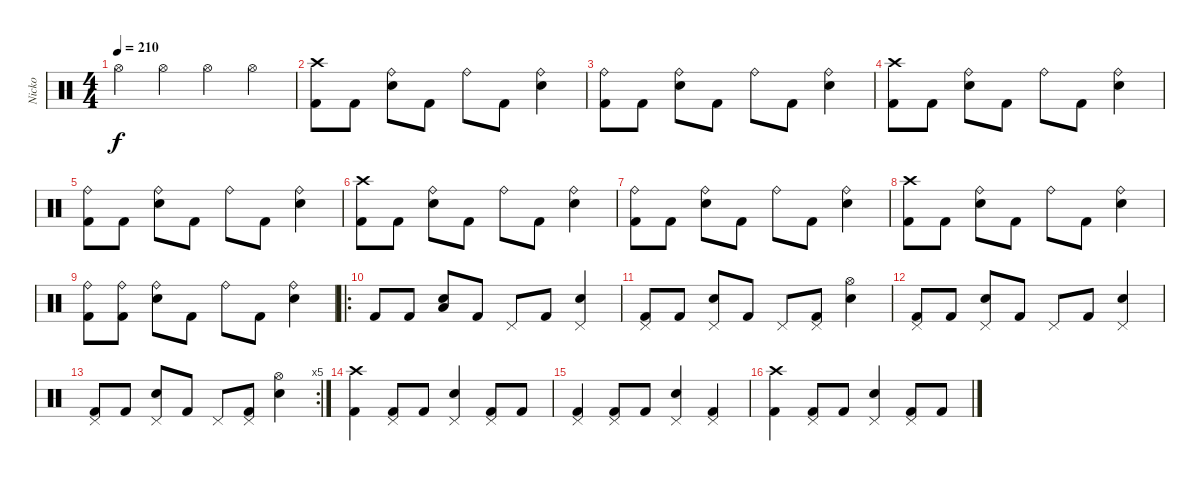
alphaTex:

\track ("Nicko" "Nicko") {instrument percussion}
\staff {score}
\articulation defaults
\ts (4 4)
\tempo 210
\clef neutral
\ks c "Hi-Hat (open)".4{dy f} "Hi-Hat (open)".4 "Hi-Hat (open)".4 "Hi-Hat (open)".4
|
("Crash high (hit)" "Kick (hit) 2").8 "Kick (hit) 2".8 ("Ride (bell)" "Electric Snare (hit)").8 "Kick (hit) 2".8 "Ride (bell)".8 "Kick (hit) 2".8 ("Ride (bell)" "Electric Snare (hit)").4 |
("Ride (bell)" "Kick (hit) 2").8 "Kick (hit) 2".8 ("Ride (bell)" "Electric Snare (hit)").8 "Kick (hit) 2".8 "Ride (bell)".8 "Kick (hit) 2".8 ("Ride (bell)" "Electric Snare (hit)").4 |
("Crash high (hit)" "Kick (hit) 2").8 "Kick (hit) 2".8 ("Ride (bell)" "Electric Snare (hit)").8 "Kick (hit) 2".8 "Ride (bell)".8 "Kick (hit) 2".8 ("Ride (bell)" "Electric Snare (hit)").4 |
("Ride (bell)" "Kick (hit) 2").8 "Kick (hit) 2".8 ("Ride (bell)" "Electric Snare (hit)").8 "Kick (hit) 2".8 "Ride (bell)".8 "Kick (hit) 2".8 ("Ride (bell)" "Electric Snare (hit)").4 |
("Crash high (hit)" "Kick (hit) 2").8 "Kick (hit) 2".8 ("Ride (bell)" "Electric Snare (hit)").8 "Kick (hit) 2".8 "Ride (bell)".8 "Kick (hit) 2".8 ("Ride (bell)" "Electric Snare (hit)").4 |
("Ride (bell)" "Kick (hit) 2").8 "Kick (hit) 2".8 ("Ride (bell)" "Electric Snare (hit)").8 "Kick (hit) 2".8 "Ride (bell)".8 "Kick (hit) 2".8 ("Ride (bell)" "Electric Snare (hit)").4 |
("Crash high (hit)" "Kick (hit) 2").8 "Kick (hit) 2".8 ("Ride (bell)" "Electric Snare (hit)").8 "Kick (hit) 2".8 "Ride (bell)".8 "Kick (hit) 2".8 ("Ride (bell)" "Electric Snare (hit)").4 |
("Ride (bell)" "Kick (hit) 2").8 ("Ride (bell)" "Kick (hit) 2").8 ("Ride (bell)" "Electric Snare (hit)").8 "Kick (hit) 2".8 "Ride (bell)".8 "Kick (hit) 2".8 ("Ride (bell)" "Electric Snare (hit)").4 |
\ro "Kick (hit) 2".8 "Kick (hit) 2".8
("Electric Snare (hit)" "Low Floor Tom (hit)").8 "Kick (hit) 2".8 "Pedal Hi-Hat (hit)".8 "Kick (hit) 2".8 ("Pedal Hi-Hat (hit)" "Electric Snare (hit)").4 |
("Pedal Hi-Hat (hit)" "Kick (hit) 2").8 "Kick (hit) 2".8 ("Pedal Hi-Hat (hit)" "Electric Snare (hit)").8 "Kick (hit) 2".8 "Pedal Hi-Hat (hit)".8 ("Pedal Hi-Hat (hit)" "Kick (hit) 2").8 ("Hi-Hat (open)" "Electric Snare (hit)").4 |
("Pedal Hi-Hat (hit)" "Kick (hit) 2").8 "Kick (hit) 2".8 ("Pedal Hi-Hat (hit)" "Electric Snare (hit)").8 "Kick (hit) 2".8 "Pedal Hi-Hat (hit)".8 "Kick (hit) 2".8 ("Pedal Hi-Hat (hit)" "Electric Snare (hit)").4 |
\rc 5
("Pedal Hi-Hat (hit)" "Kick (hit) 2").8 "Kick (hit) 2".8 ("Pedal Hi-Hat (hit)" "Electric Snare (hit)").8 "Kick (hit) 2".8 "Pedal Hi-Hat (hit)".8 ("Pedal Hi-Hat (hit)" "Kick (hit) 2").8 ("Hi-Hat (open)" "Electric Snare (hit)").4 |
("Crash high (hit)" "Kick (hit) 2").4 ("Pedal Hi-Hat (hit)" "Kick (hit) 2").8 "Kick (hit) 2".8 ("Pedal Hi-Hat (hit)" "Electric Snare (hit)").4 ("Pedal Hi-Hat (hit)" "Kick (hit) 2").8 "Kick (hit) 2".8 |
("Pedal Hi-Hat (hit)" "Kick (hit) 2").4 ("Pedal Hi-Hat (hit)" "Kick (hit) 2").8 "Kick (hit) 2".8 ("Pedal Hi-Hat (hit)" "Electric Snare (hit)").4 ("Pedal Hi-Hat (hit)" "Kick (hit) 2").4 |
("Crash high (hit)" "Kick (hit) 2").4 ("Pedal Hi-Hat (hit)" "Kick (hit) 2").8 "Kick (hit) 2".8 ("Pedal Hi-Hat (hit)" "Electric Snare (hit)").4 ("Pedal Hi-Hat (hit)" "Kick (hit) 2").8 "Kick (hit) 2".8
